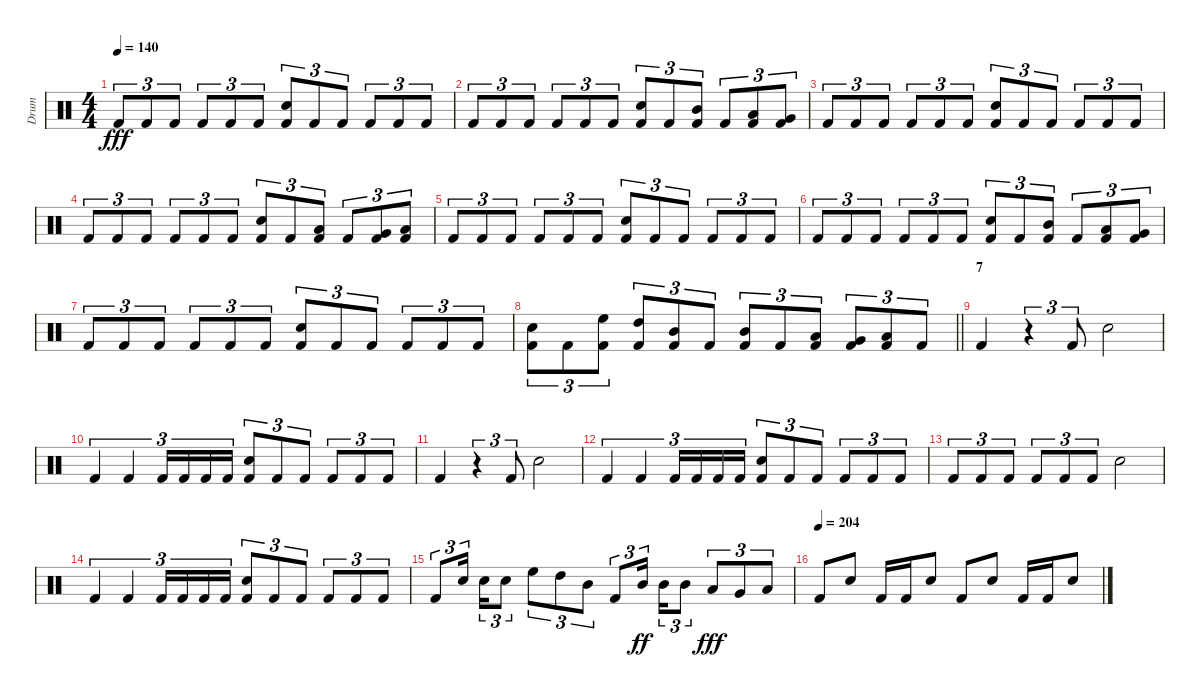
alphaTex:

\track ("Drum" "Drum") {instrument percussion}
\staff {score}
\articulation defaults
\ts (4 4)
\tempo 140
\clef neutral
\ks c "Kick (hit) 2".8{tu (3 2) dy fff} "Kick (hit) 2".8{tu (3 2)} "Kick (hit) 2".8{tu (3 2)} "Kick (hit) 2".8{tu (3 2)} "Kick (hit) 2".8{tu (3 2)} "Kick (hit) 2".8{tu (3 2)}
("Electric Snare (hit)" "Kick (hit) 2").8{tu (3 2)} "Kick (hit) 2".8{tu (3 2)} "Kick (hit) 2".8{tu (3 2)} "Kick (hit) 2".8{tu (3 2)} "Kick (hit) 2".8{tu (3 2)} "Kick (hit) 2".8{tu (3 2)} |
"Kick (hit) 2".8{tu (3 2)} "Kick (hit) 2".8{tu (3 2)} "Kick (hit) 2".8{tu (3 2)} "Kick (hit) 2".8{tu (3 2)} "Kick (hit) 2".8{tu (3 2)} "Kick (hit) 2".8{tu (3 2)} ("Electric Snare (hit)" "Kick (hit) 2").8{tu (3 2)} "Kick (hit) 2".8{tu (3 2)} ("Mid Tom (hit)" "Kick (hit) 2").8{tu (3 2)} "Kick (hit) 2".8{tu (3 2)} ("Low Tom (hit)" "Kick (hit) 2").8{tu (3 2)} ("Very Low Tom (hit)" "Kick (hit) 2").8{tu (3 2)} |
"Kick (hit) 2".8{tu (3 2)} "Kick (hit) 2".8{tu (3 2)} "Kick (hit) 2".8{tu (3 2)} "Kick (hit) 2".8{tu (3 2)} "Kick (hit) 2".8{tu (3 2)} "Kick (hit) 2".8{tu (3 2)} ("Electric Snare (hit)" "Kick (hit) 2").8{tu (3 2)} "Kick (hit) 2".8{tu (3 2)} "Kick (hit) 2".8{tu (3 2)} "Kick (hit) 2".8{tu (3 2)} "Kick (hit) 2".8{tu (3 2)} "Kick (hit) 2".8{tu (3 2)} |
"Kick (hit) 2".8{tu (3 2)} "Kick (hit) 2".8{tu (3 2)} "Kick (hit) 2".8{tu (3 2)} "Kick (hit) 2".8{tu (3 2)} "Kick (hit) 2".8{tu (3 2)} "Kick (hit) 2".8{tu (3 2)} ("Electric Snare (hit)" "Kick (hit) 2").8{tu (3 2)} "Kick (hit) 2".8{tu (3 2)} ("Low Tom (hit)" "Kick (hit) 2").8{tu (3 2)} "Kick (hit) 2".8{tu (3 2)} ("Very Low Tom (hit)" "Kick (hit) 2").8{tu (3 2)} ("Low Floor Tom (hit)" "Kick (hit) 2").8{tu (3 2)} |
"Kick (hit) 2".8{tu (3 2)} "Kick (hit) 2".8{tu (3 2)} "Kick (hit) 2".8{tu (3 2)} "Kick (hit) 2".8{tu (3 2)} "Kick (hit) 2".8{tu (3 2)} "Kick (hit) 2".8{tu (3 2)} ("Electric Snare (hit)" "Kick (hit) 2").8{tu (3 2)} "Kick (hit) 2".8{tu (3 2)} "Kick (hit) 2".8{tu (3 2)} "Kick (hit) 2".8{tu (3 2)} "Kick (hit) 2".8{tu (3 2)} "Kick (hit) 2".8{tu (3 2)} |
"Kick (hit) 2".8{tu (3 2)} "Kick (hit) 2".8{tu (3 2)} "Kick (hit) 2".8{tu (3 2)} "Kick (hit) 2".8{tu (3 2)} "Kick (hit) 2".8{tu (3 2)} "Kick (hit) 2".8{tu (3 2)} ("Electric Snare (hit)" "Kick (hit) 2").8{tu (3 2)} "Kick (hit) 2".8{tu (3 2)} ("Mid Tom (hit)" "Kick (hit) 2").8{tu (3 2)} "Kick (hit) 2".8{tu (3 2)} ("Low Tom (hit)" "Kick (hit) 2").8{tu (3 2)} ("Very Low Tom (hit)" "Kick (hit) 2").8{tu (3 2)} |
"Kick (hit) 2".8{tu (3 2)} "Kick (hit) 2".8{tu (3 2)} "Kick (hit) 2".8{tu (3 2)} "Kick (hit) 2".8{tu (3 2)} "Kick (hit) 2".8{tu (3 2)} "Kick (hit) 2".8{tu (3 2)} ("Electric Snare (hit)" "Kick (hit) 2").8{tu (3 2)} "Kick (hit) 2".8{tu (3 2)} "Kick (hit) 2".8{tu (3 2)} "Kick (hit) 2".8{tu (3 2)} "Kick (hit) 2".8{tu (3 2)} "Kick (hit) 2".8{tu (3 2)} |
\barLineRight lightlight
("Electric Snare (hit)" "Kick (hit) 2").8{tu (3 2)} "Kick (hit) 2".8{tu (3 2)} ("High Floor Tom (hit)" "Kick (hit) 2").8{tu (3 2)} ("High Tom (hit)" "Kick (hit) 2").8{tu (3 2)} ("Mid Tom (hit)" "Kick (hit) 2").8{tu (3 2)} "Kick (hit) 2".8{tu (3 2)} ("Mid Tom (hit)" "Kick (hit) 2").8{tu (3 2)} "Kick (hit) 2".8{tu (3 2)} ("Low Tom (hit)" "Kick (hit) 2").8{tu (3 2)} ("Very Low Tom (hit)" "Kick (hit) 2").8{tu (3 2)} ("Low Floor Tom (hit)" "Kick (hit) 2").8{tu (3 2)} "Kick (hit) 2".8{tu (3 2)} |
\section ("" "7")
"Kick (hit) 2".4 r.4{tu (3 2)} "Kick (hit) 2".8{tu (3 2)} "Electric Snare (hit)".2 |
"Kick (hit) 2".4{tu (3 2)} "Kick (hit) 2".4{tu (3 2)} "Kick (hit) 2".16{tu (3 2)} "Kick (hit) 2".16{tu (3 2)} "Kick (hit) 2".16{tu (3 2)} "Kick (hit) 2".16{tu (3 2)} ("Electric Snare (hit)" "Kick (hit) 2").8{tu (3 2)} "Kick (hit) 2".8{tu (3 2)} "Kick (hit) 2".8{tu (3 2)} "Kick (hit) 2".8{tu (3 2)} "Kick (hit) 2".8{tu (3 2)} "Kick (hit) 2".8{tu (3 2)} |
"Kick (hit) 2".4 r.4{tu (3 2)} "Kick (hit) 2".8{tu (3 2)} "Electric Snare (hit)".2 |
"Kick (hit) 2".4{tu (3 2)} "Kick (hit) 2".4{tu (3 2)} "Kick (hit) 2".16{tu (3 2)} "Kick (hit) 2".16{tu (3 2)} "Kick (hit) 2".16{tu (3 2)} "Kick (hit) 2".16{tu (3 2)} ("Electric Snare (hit)" "Kick (hit) 2").8{tu (3 2)} "Kick (hit) 2".8{tu (3 2)} "Kick (hit) 2".8{tu (3 2)} "Kick (hit) 2".8{tu (3 2)} "Kick (hit) 2".8{tu (3 2)} "Kick (hit) 2".8{tu (3 2)} |
"Kick (hit) 2".8{tu (3 2)} "Kick (hit) 2".8{tu (3 2)} "Kick (hit) 2".8{tu (3 2)} "Kick (hit) 2".8{tu (3 2)} "Kick (hit) 2".8{tu (3 2)} "Kick (hit) 2".8{tu (3 2)} "Electric Snare (hit)".2 |
"Kick (hit) 2".4{tu (3 2)} "Kick (hit) 2".4{tu (3 2)} "Kick (hit) 2".16{tu (3 2)} "Kick (hit) 2".16{tu (3 2)} "Kick (hit) 2".16{tu (3 2)} "Kick (hit) 2".16{tu (3 2)} ("Electric Snare (hit)" "Kick (hit) 2").8{tu (3 2)} "Kick (hit) 2".8{tu (3 2)} "Kick (hit) 2".8{tu (3 2)} "Kick (hit) 2".8{tu (3 2)} "Kick (hit) 2".8{tu (3 2)} "Kick (hit) 2".8{tu (3 2)} |
"Kick (hit) 2".8{tu (3 2)} "Electric Snare (hit)".16{tu (3 2) beam splitsecondary} "Electric Snare (hit)".16{tu (3 2)} "Electric Snare (hit)".8{tu (3 2)} "High Floor Tom (hit)".8{tu (3 2)} "High Tom (hit)".8{tu (3 2)} "Mid Tom (hit)".8{tu (3 2)} "Kick (hit) 2".8{tu (3 2)} "Mid Tom (hit)".16{tu (3 2) dy ff beam splitsecondary} "Mid Tom (hit)".16{tu (3 2)} "Mid Tom (hit)".8{tu (3 2)} "Low Tom (hit)".8{tu (3 2) dy fff} "Very Low Tom (hit)".8{tu (3 2)} "Low Floor Tom (hit)".8{tu (3 2)} |
\tempo (204)
"Kick (hit) 2".8 "Electric Snare (hit)".8 "Kick (hit) 2".16 "Kick (hit) 2".16 "Electric Snare (hit)".8 "Kick (hit) 2".8 "Electric Snare (hit)".8 "Kick (hit) 2".16 "Kick (hit) 2".16 "Electric Snare (hit)".8
